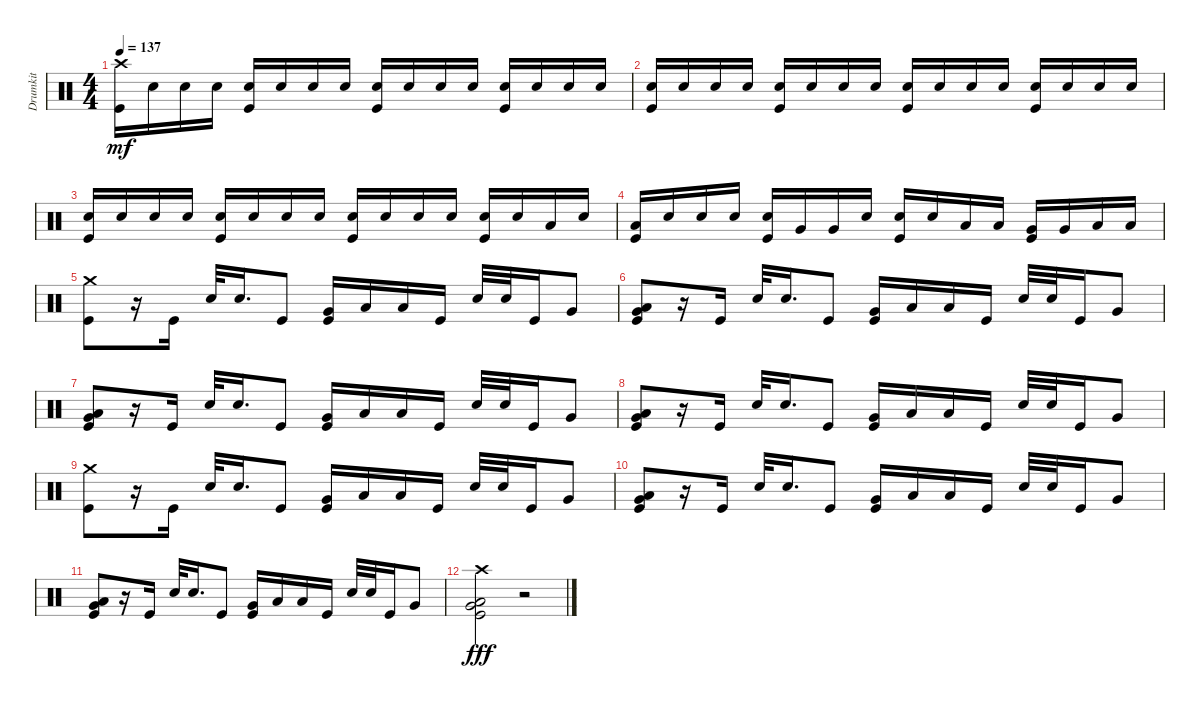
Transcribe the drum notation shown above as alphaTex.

\track ("Drumkit" "Drumkit") {instrument percussion}
\staff {score}
\articulation defaults
\ts (4 4)
\tempo 137
\clef neutral
\ks c
("Crash high (hit)" "Kick (hit)").16{dy mf} "Snare (hit) 2".16 "Snare (hit) 2".16 "Snare (hit) 2".16 ("Snare (hit) 2" "Kick (hit)").16 "Snare (hit) 2".16 "Snare (hit) 2".16 "Snare (hit) 2".16 ("Snare (hit) 2" "Kick (hit)").16 "Snare (hit) 2".16 "Snare (hit) 2".16 "Snare (hit) 2".16 ("Snare (hit) 2" "Kick (hit)").16 "Snare (hit) 2".16 "Snare (hit) 2".16 "Snare (hit) 2".16 |
("Snare (hit) 2" "Kick (hit)").16 "Snare (hit) 2".16 "Snare (hit) 2".16 "Snare (hit) 2".16 ("Snare (hit) 2" "Kick (hit)").16 "Snare (hit) 2".16 "Snare (hit) 2".16 "Snare (hit) 2".16 ("Snare (hit) 2" "Kick (hit)").16 "Snare (hit) 2".16 "Snare (hit) 2".16 "Snare (hit) 2".16 ("Snare (hit) 2" "Kick (hit)").16 "Snare (hit) 2".16 "Snare (hit) 2".16 "Snare (hit) 2".16 |
("Snare (hit) 2" "Kick (hit)").16 "Snare (hit) 2".16 "Snare (hit) 2".16 "Snare (hit) 2".16 ("Snare (hit) 2" "Kick (hit)").16 "Snare (hit) 2".16 "Snare (hit) 2".16 "Snare (hit) 2".16 ("Snare (hit) 2" "Kick (hit)").16 "Snare (hit) 2".16 "Snare (hit) 2".16 "Snare (hit) 2".16 ("Snare (hit) 2" "Kick (hit)").16 "Snare (hit) 2".16 "Low Tom (hit)".16 "Snare (hit) 2".16 |
("Low Tom (hit)" "Kick (hit)").16 "Snare (hit) 2".16 "Snare (hit) 2".16 "Snare (hit) 2".16 ("Snare (hit) 2" "Kick (hit)").16 "Very Low Tom (hit)".16 "Very Low Tom (hit)".16 "Snare (hit) 2".16 ("Snare (hit) 2" "Kick (hit)").16 "Snare (hit) 2".16 "Low Tom (hit)".16 "Low Tom (hit)".16 ("Very Low Tom (hit)" "Kick (hit)").16 "Very Low Tom (hit)".16 "Low Floor Tom (hit)".16 "Low Floor Tom (hit)".16 |
("Crash medium (hit)" "Kick (hit)").8 r.16 "Kick (hit)".16 "Snare (hit) 2".32 "Snare (hit) 2".16{d} "Kick (hit)".8 ("Very Low Tom (hit)" "Kick (hit)").16 "Low Tom (hit)".16 "Low Floor Tom (hit)".16 "Kick (hit)".16 "Snare (hit) 2".32 "Snare (hit) 2".32 "Kick (hit)".16 "Very Low Tom (hit)".8 |
("Very Low Tom (hit)" "Low Floor Tom (hit)" "Kick (hit)").8 r.16 "Kick (hit)".16 "Snare (hit) 2".32 "Snare (hit) 2".16{d} "Kick (hit)".8 ("Very Low Tom (hit)" "Kick (hit)").16 "Low Tom (hit)".16 "Low Floor Tom (hit)".16 "Kick (hit)".16 "Snare (hit) 2".32 "Snare (hit) 2".32 "Kick (hit)".16 "Very Low Tom (hit)".8 |
("Very Low Tom (hit)" "Low Floor Tom (hit)" "Kick (hit)").8 r.16 "Kick (hit)".16 "Snare (hit) 2".32 "Snare (hit) 2".16{d} "Kick (hit)".8 ("Very Low Tom (hit)" "Kick (hit)").16 "Low Tom (hit)".16 "Low Floor Tom (hit)".16 "Kick (hit)".16 "Snare (hit) 2".32 "Snare (hit) 2".32 "Kick (hit)".16 "Very Low Tom (hit)".8 |
("Very Low Tom (hit)" "Low Floor Tom (hit)" "Kick (hit)").8 r.16 "Kick (hit)".16 "Snare (hit) 2".32 "Snare (hit) 2".16{d} "Kick (hit)".8 ("Very Low Tom (hit)" "Kick (hit)").16 "Low Tom (hit)".16 "Low Floor Tom (hit)".16 "Kick (hit)".16 "Snare (hit) 2".32 "Snare (hit) 2".32 "Kick (hit)".16 "Very Low Tom (hit)".8 |
("Crash medium (hit)" "Kick (hit)").8 r.16 "Kick (hit)".16 "Snare (hit) 2".32 "Snare (hit) 2".16{d} "Kick (hit)".8 ("Very Low Tom (hit)" "Kick (hit)").16 "Low Tom (hit)".16 "Low Floor Tom (hit)".16 "Kick (hit)".16 "Snare (hit) 2".32 "Snare (hit) 2".32 "Kick (hit)".16 "Very Low Tom (hit)".8 |
("Very Low Tom (hit)" "Low Floor Tom (hit)" "Kick (hit)").8 r.16 "Kick (hit)".16 "Snare (hit) 2".32 "Snare (hit) 2".16{d} "Kick (hit)".8 ("Very Low Tom (hit)" "Kick (hit)").16 "Low Tom (hit)".16 "Low Floor Tom (hit)".16 "Kick (hit)".16 "Snare (hit) 2".32 "Snare (hit) 2".32 "Kick (hit)".16 "Very Low Tom (hit)".8 |
("Very Low Tom (hit)" "Low Floor Tom (hit)" "Kick (hit)").8 r.16 "Kick (hit)".16 "Snare (hit) 2".32 "Snare (hit) 2".16{d} "Kick (hit)".8 ("Very Low Tom (hit)" "Kick (hit)").16 "Low Tom (hit)".16 "Low Floor Tom (hit)".16 "Kick (hit)".16 "Snare (hit) 2".32 "Snare (hit) 2".32 "Kick (hit)".16 "Very Low Tom (hit)".8 |
("Very Low Tom (hit)" "Low Floor Tom (hit)" "Kick (hit)" "Crash high (hit)").2{dy fff} r.2
